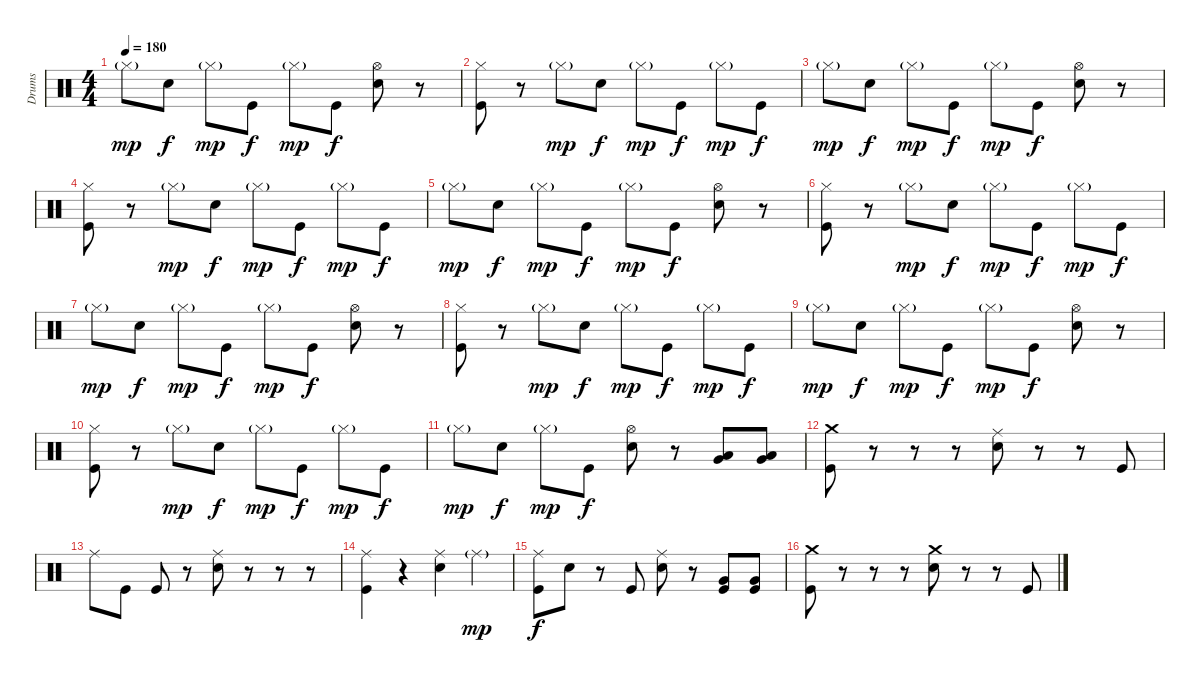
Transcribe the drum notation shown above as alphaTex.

\track ("Drums" "Drums") {instrument percussion}
\staff {score}
\articulation defaults
\ts (4 4)
\tempo 180
\clef neutral
\ks c "Hi-Hat (closed)"{g}.8{dy mp} "Electric Snare (hit)".8{dy f} "Hi-Hat (closed)"{g}.8{dy mp} "Kick (hit)".8{dy f} "Hi-Hat (closed)"{g}.8{dy mp} "Kick (hit)".8{dy f}
("Hi-Hat (open)" "Electric Snare (hit)").8 r.8 |
("Hi-Hat (closed)" "Kick (hit)").8 r.8 "Hi-Hat (closed)"{g}.8{dy mp} "Electric Snare (hit)".8{dy f} "Hi-Hat (closed)"{g}.8{dy mp} "Kick (hit)".8{dy f} "Hi-Hat (closed)"{g}.8{dy mp} "Kick (hit)".8{dy f} |
"Hi-Hat (closed)"{g}.8{dy mp} "Electric Snare (hit)".8{dy f} "Hi-Hat (closed)"{g}.8{dy mp} "Kick (hit)".8{dy f} "Hi-Hat (closed)"{g}.8{dy mp} "Kick (hit)".8{dy f} ("Hi-Hat (open)" "Electric Snare (hit)").8 r.8 |
("Hi-Hat (closed)" "Kick (hit)").8 r.8 "Hi-Hat (closed)"{g}.8{dy mp} "Electric Snare (hit)".8{dy f} "Hi-Hat (closed)"{g}.8{dy mp} "Kick (hit)".8{dy f} "Hi-Hat (closed)"{g}.8{dy mp} "Kick (hit)".8{dy f} |
"Hi-Hat (closed)"{g}.8{dy mp} "Electric Snare (hit)".8{dy f} "Hi-Hat (closed)"{g}.8{dy mp} "Kick (hit)".8{dy f} "Hi-Hat (closed)"{g}.8{dy mp} "Kick (hit)".8{dy f} ("Hi-Hat (open)" "Electric Snare (hit)").8 r.8 |
("Hi-Hat (closed)" "Kick (hit)").8 r.8 "Hi-Hat (closed)"{g}.8{dy mp} "Electric Snare (hit)".8{dy f} "Hi-Hat (closed)"{g}.8{dy mp} "Kick (hit)".8{dy f} "Hi-Hat (closed)"{g}.8{dy mp} "Kick (hit)".8{dy f} |
"Hi-Hat (closed)"{g}.8{dy mp} "Electric Snare (hit)".8{dy f} "Hi-Hat (closed)"{g}.8{dy mp} "Kick (hit)".8{dy f} "Hi-Hat (closed)"{g}.8{dy mp} "Kick (hit)".8{dy f} ("Hi-Hat (open)" "Electric Snare (hit)").8 r.8 |
("Hi-Hat (closed)" "Kick (hit)").8 r.8 "Hi-Hat (closed)"{g}.8{dy mp} "Electric Snare (hit)".8{dy f} "Hi-Hat (closed)"{g}.8{dy mp} "Kick (hit)".8{dy f} "Hi-Hat (closed)"{g}.8{dy mp} "Kick (hit)".8{dy f} |
"Hi-Hat (closed)"{g}.8{dy mp} "Electric Snare (hit)".8{dy f} "Hi-Hat (closed)"{g}.8{dy mp} "Kick (hit)".8{dy f} "Hi-Hat (closed)"{g}.8{dy mp} "Kick (hit)".8{dy f} ("Hi-Hat (open)" "Electric Snare (hit)").8 r.8 |
("Hi-Hat (closed)" "Kick (hit)").8 r.8 "Hi-Hat (closed)"{g}.8{dy mp} "Electric Snare (hit)".8{dy f} "Hi-Hat (closed)"{g}.8{dy mp} "Kick (hit)".8{dy f} "Hi-Hat (closed)"{g}.8{dy mp} "Kick (hit)".8{dy f} |
"Hi-Hat (closed)"{g}.8{dy mp} "Electric Snare (hit)".8{dy f} "Hi-Hat (closed)"{g}.8{dy mp} "Kick (hit)".8{dy f} ("Hi-Hat (open)" "Electric Snare (hit)").8 r.8 ("Low Tom (hit)" "Very Low Tom (hit)").8 ("Low Tom (hit)" "Very Low Tom (hit)").8 |
("Crash medium (hit)" "Kick (hit)").8 r.8 r.8 r.8 ("Ride (middle)" "Electric Snare (hit)").8 r.8 r.8 "Kick (hit)".8 |
"Ride (middle)".8 "Kick (hit)".8 "Kick (hit)".8 r.8 ("Ride (middle)" "Electric Snare (hit)").8 r.8 r.8 r.8 |
("Ride (middle)" "Kick (hit)").4 r.4 ("Ride (middle)" "Electric Snare (hit)").4 "Ride (middle)"{g}.4{dy mp} |
("Ride (middle)" "Kick (hit)").8{dy f} "Electric Snare (hit)".8 r.8 "Kick (hit)".8 ("Ride (middle)" "Electric Snare (hit)").8 r.8 ("Very Low Tom (hit)" "Kick (hit)").8 ("Very Low Tom (hit)" "Kick (hit)").8 |
("Crash medium (hit)" "Kick (hit)").8 r.8 r.8 r.8 ("Crash medium (hit)" "Electric Snare (hit)").8 r.8 r.8 "Kick (hit)".8
